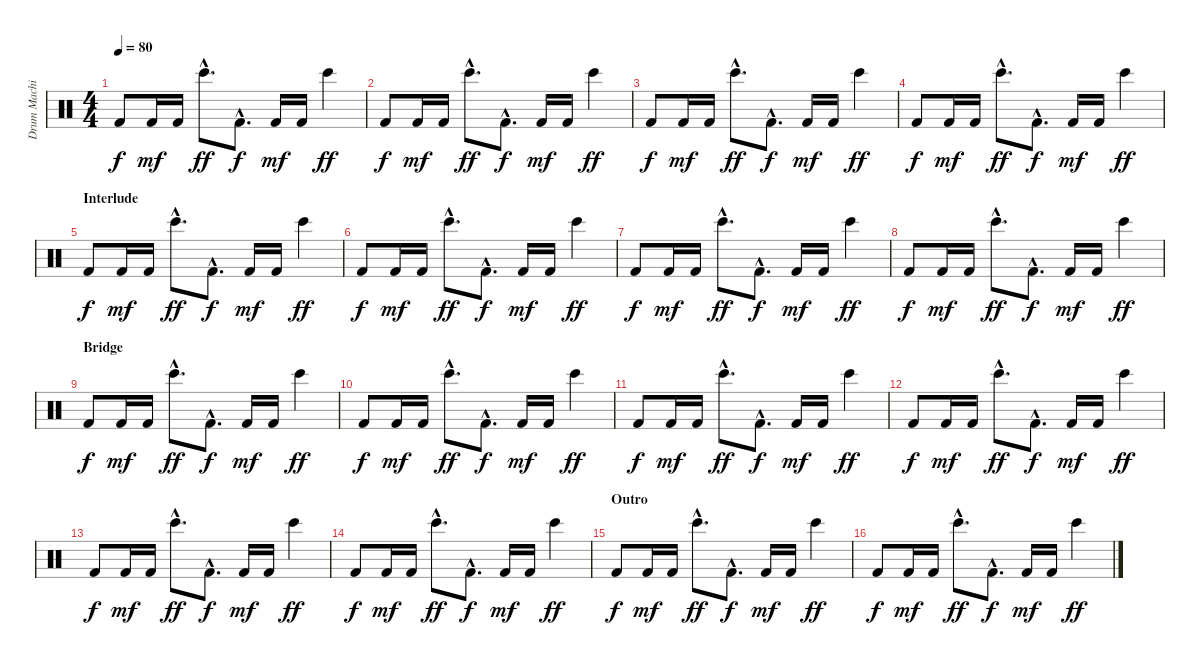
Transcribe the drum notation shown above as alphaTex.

\track ("Drum Machine" "Drum Machi") {instrument percussion}
\staff {score}
\articulation defaults
\ts (4 4)
\tempo 80
\clef neutral
\ks c "Kick (hit) 2".8{dy f} "Kick (hit) 2".16{dy mf} "Kick (hit) 2".16 "Bongo High (hit)"{hac}.8{d dy ff} "Kick (hit) 2"{hac}.8{d dy f} "Kick (hit) 2".16{dy mf} "Kick (hit) 2".16 "Bongo High (hit)".4{dy ff}
|
"Kick (hit) 2".8{dy f} "Kick (hit) 2".16{dy mf} "Kick (hit) 2".16 "Bongo High (hit)"{hac}.8{d dy ff} "Kick (hit) 2"{hac}.8{d dy f} "Kick (hit) 2".16{dy mf} "Kick (hit) 2".16 "Bongo High (hit)".4{dy ff} |
"Kick (hit) 2".8{dy f} "Kick (hit) 2".16{dy mf} "Kick (hit) 2".16 "Bongo High (hit)"{hac}.8{d dy ff} "Kick (hit) 2"{hac}.8{d dy f} "Kick (hit) 2".16{dy mf} "Kick (hit) 2".16 "Bongo High (hit)".4{dy ff} |
"Kick (hit) 2".8{dy f} "Kick (hit) 2".16{dy mf} "Kick (hit) 2".16 "Bongo High (hit)"{hac}.8{d dy ff} "Kick (hit) 2"{hac}.8{d dy f} "Kick (hit) 2".16{dy mf} "Kick (hit) 2".16 "Bongo High (hit)".4{dy ff} |
\section ("" "Interlude")
"Kick (hit) 2".8{dy f} "Kick (hit) 2".16{dy mf} "Kick (hit) 2".16 "Bongo High (hit)"{hac}.8{d dy ff} "Kick (hit) 2"{hac}.8{d dy f} "Kick (hit) 2".16{dy mf} "Kick (hit) 2".16 "Bongo High (hit)".4{dy ff} |
"Kick (hit) 2".8{dy f} "Kick (hit) 2".16{dy mf} "Kick (hit) 2".16 "Bongo High (hit)"{hac}.8{d dy ff} "Kick (hit) 2"{hac}.8{d dy f} "Kick (hit) 2".16{dy mf} "Kick (hit) 2".16 "Bongo High (hit)".4{dy ff} |
"Kick (hit) 2".8{dy f} "Kick (hit) 2".16{dy mf} "Kick (hit) 2".16 "Bongo High (hit)"{hac}.8{d dy ff} "Kick (hit) 2"{hac}.8{d dy f} "Kick (hit) 2".16{dy mf} "Kick (hit) 2".16 "Bongo High (hit)".4{dy ff} |
"Kick (hit) 2".8{dy f} "Kick (hit) 2".16{dy mf} "Kick (hit) 2".16 "Bongo High (hit)"{hac}.8{d dy ff} "Kick (hit) 2"{hac}.8{d dy f} "Kick (hit) 2".16{dy mf} "Kick (hit) 2".16 "Bongo High (hit)".4{dy ff} |
\section ("" "Bridge")
"Kick (hit) 2".8{dy f} "Kick (hit) 2".16{dy mf} "Kick (hit) 2".16 "Bongo High (hit)"{hac}.8{d dy ff} "Kick (hit) 2"{hac}.8{d dy f} "Kick (hit) 2".16{dy mf} "Kick (hit) 2".16 "Bongo High (hit)".4{dy ff} |
"Kick (hit) 2".8{dy f} "Kick (hit) 2".16{dy mf} "Kick (hit) 2".16 "Bongo High (hit)"{hac}.8{d dy ff} "Kick (hit) 2"{hac}.8{d dy f} "Kick (hit) 2".16{dy mf} "Kick (hit) 2".16 "Bongo High (hit)".4{dy ff} |
"Kick (hit) 2".8{dy f} "Kick (hit) 2".16{dy mf} "Kick (hit) 2".16 "Bongo High (hit)"{hac}.8{d dy ff} "Kick (hit) 2"{hac}.8{d dy f} "Kick (hit) 2".16{dy mf} "Kick (hit) 2".16 "Bongo High (hit)".4{dy ff} |
"Kick (hit) 2".8{dy f} "Kick (hit) 2".16{dy mf} "Kick (hit) 2".16 "Bongo High (hit)"{hac}.8{d dy ff} "Kick (hit) 2"{hac}.8{d dy f} "Kick (hit) 2".16{dy mf} "Kick (hit) 2".16 "Bongo High (hit)".4{dy ff} |
"Kick (hit) 2".8{dy f} "Kick (hit) 2".16{dy mf} "Kick (hit) 2".16 "Bongo High (hit)"{hac}.8{d dy ff} "Kick (hit) 2"{hac}.8{d dy f} "Kick (hit) 2".16{dy mf} "Kick (hit) 2".16 "Bongo High (hit)".4{dy ff} |
"Kick (hit) 2".8{dy f} "Kick (hit) 2".16{dy mf} "Kick (hit) 2".16 "Bongo High (hit)"{hac}.8{d dy ff} "Kick (hit) 2"{hac}.8{d dy f} "Kick (hit) 2".16{dy mf} "Kick (hit) 2".16 "Bongo High (hit)".4{dy ff} |
\section ("" "Outro")
"Kick (hit) 2".8{dy f} "Kick (hit) 2".16{dy mf} "Kick (hit) 2".16 "Bongo High (hit)"{hac}.8{d dy ff} "Kick (hit) 2"{hac}.8{d dy f} "Kick (hit) 2".16{dy mf} "Kick (hit) 2".16 "Bongo High (hit)".4{dy ff} |
"Kick (hit) 2".8{dy f} "Kick (hit) 2".16{dy mf} "Kick (hit) 2".16 "Bongo High (hit)"{hac}.8{d dy ff} "Kick (hit) 2"{hac}.8{d dy f} "Kick (hit) 2".16{dy mf} "Kick (hit) 2".16 "Bongo High (hit)".4{dy ff}
